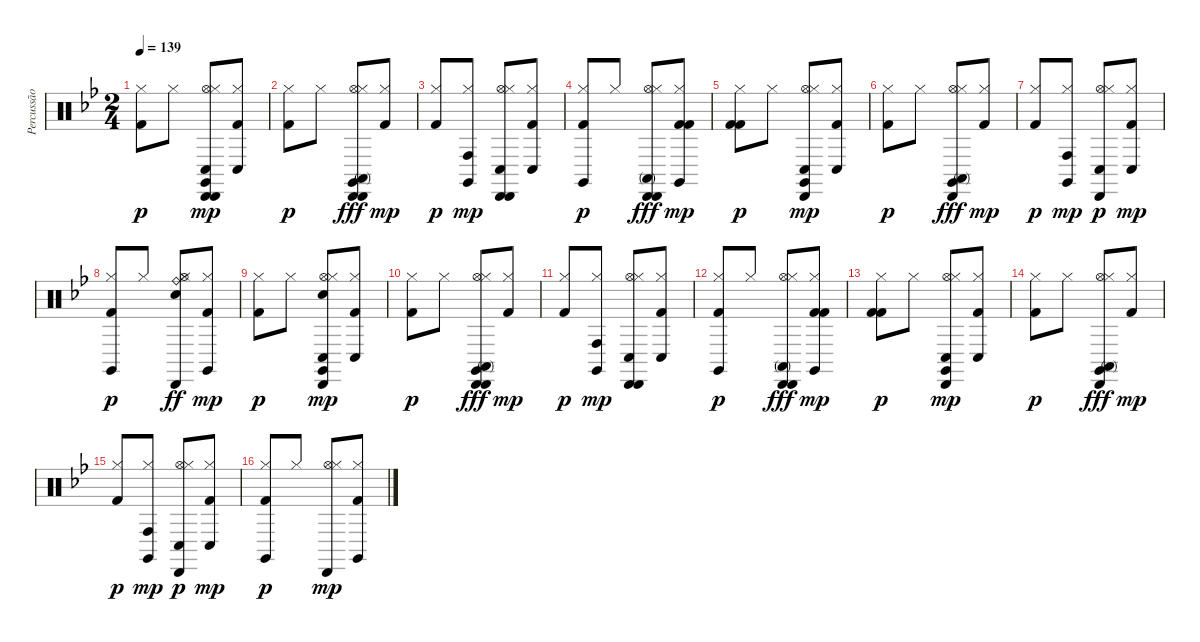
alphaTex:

\track ("Percussão" "Percussão") {instrument percussion}
\staff {score}
\articulation defaults
\ts (2 4)
\tempo 139
\clef neutral
\ks bb
("Kick (hit) 2" "Hi-Hat (closed)").8{dy p} "Hi-Hat (closed)".8 ("Hi-Hat (open)" "Hi-Hat (closed)" "Claves (hit)" "Conga low (hit)" "Cabasa (hit)" "Cabasa (hit)").8{dy mp} ("Hi-Hat (closed)" "Conga low (hit)" "Kick (hit) 2").8 |
("Kick (hit) 2" "Hi-Hat (closed)").8{dy p} "Hi-Hat (closed)".8 ("Hi-Hat (open)" "Hi-Hat (closed)" "Claves (hit)" "Cabasa (hit)" "Cabasa (hit)" "Conga high (mute)").8{dy fff} ("Hi-Hat (closed)" "Kick (hit) 2").8{dy mp} |
("Kick (hit) 2" "Hi-Hat (closed)").8{dy p} ("Hi-Hat (closed)" "Claves (hit)" "Conga high (hit)").8{dy mp} ("Hi-Hat (open)" "Hi-Hat (closed)" "Conga low (hit)" "Cabasa (hit)" "Cabasa (hit)").8 ("Hi-Hat (closed)" "Conga low (hit)" "Kick (hit) 2").8 |
("Kick (hit) 2" "Claves (hit)" "Hi-Hat (closed)").8{dy p} "Hi-Hat (closed)".8 ("Hi-Hat (open)" "Hi-Hat (closed)" "Cabasa (hit)" "Cabasa (hit)" "Conga high (mute)").8{dy fff} ("Hi-Hat (closed)" "Claves (hit)" "Kick (hit) 2" "Kick (hit) 2").8{dy mp} |
("Kick (hit) 2" "Kick (hit) 2" "Hi-Hat (closed)").8{dy p} "Hi-Hat (closed)".8 ("Hi-Hat (open)" "Hi-Hat (closed)" "Claves (hit)" "Conga low (hit)" "Cabasa (hit)").8{dy mp} ("Hi-Hat (closed)" "Conga low (hit)" "Kick (hit) 2").8 |
("Kick (hit) 2" "Hi-Hat (closed)").8{dy p} "Hi-Hat (closed)".8 ("Hi-Hat (open)" "Hi-Hat (closed)" "Claves (hit)" "Cabasa (hit)" "Conga high (mute)").8{dy fff} ("Hi-Hat (closed)" "Kick (hit) 2").8{dy mp} |
("Kick (hit) 2" "Hi-Hat (closed)").8{dy p} ("Hi-Hat (closed)" "Claves (hit)" "Conga high (hit)").8{dy mp} ("Hi-Hat (open)" "Hi-Hat (closed)" "Conga low (hit)" "Cabasa (hit)").8{dy p} ("Hi-Hat (closed)" "Conga low (hit)" "Kick (hit) 2").8{dy mp} |
("Kick (hit) 2" "Claves (hit)" "Hi-Hat (closed)").8{dy p} "Hi-Hat (closed)".8 ("Hi-Hat (open)" "Hi-Hat (closed)" "Electric Snare (hit)" "Cabasa (hit)" "Ride (bell)").8{dy ff} ("Hi-Hat (closed)" "Claves (hit)" "Kick (hit) 2").8{dy mp} |
("Kick (hit) 2" "Hi-Hat (closed)").8{dy p} "Hi-Hat (closed)".8 ("Hi-Hat (open)" "Hi-Hat (closed)" "Claves (hit)" "Conga low (hit)" "Electric Snare (hit)" "Cabasa (hit)").8{dy mp} ("Hi-Hat (closed)" "Conga low (hit)" "Kick (hit) 2").8 |
("Kick (hit) 2" "Hi-Hat (closed)").8{dy p} "Hi-Hat (closed)".8 ("Hi-Hat (open)" "Hi-Hat (closed)" "Claves (hit)" "Cabasa (hit)" "Cabasa (hit)" "Conga high (mute)").8{dy fff} ("Hi-Hat (closed)" "Kick (hit) 2").8{dy mp} |
("Kick (hit) 2" "Hi-Hat (closed)").8{dy p} ("Hi-Hat (closed)" "Claves (hit)" "Conga high (hit)").8{dy mp} ("Hi-Hat (open)" "Hi-Hat (closed)" "Conga low (hit)" "Cabasa (hit)" "Cabasa (hit)").8 ("Hi-Hat (closed)" "Conga low (hit)" "Kick (hit) 2").8 |
("Kick (hit) 2" "Claves (hit)" "Hi-Hat (closed)").8{dy p} "Hi-Hat (closed)".8 ("Hi-Hat (open)" "Hi-Hat (closed)" "Cabasa (hit)" "Cabasa (hit)" "Conga high (mute)").8{dy fff} ("Hi-Hat (closed)" "Claves (hit)" "Kick (hit) 2" "Kick (hit) 2").8{dy mp} |
("Kick (hit) 2" "Kick (hit) 2" "Hi-Hat (closed)").8{dy p} "Hi-Hat (closed)".8 ("Hi-Hat (open)" "Hi-Hat (closed)" "Claves (hit)" "Conga low (hit)" "Cabasa (hit)").8{dy mp} ("Hi-Hat (closed)" "Conga low (hit)" "Kick (hit) 2").8 |
("Kick (hit) 2" "Hi-Hat (closed)").8{dy p} "Hi-Hat (closed)".8 ("Hi-Hat (open)" "Hi-Hat (closed)" "Claves (hit)" "Cabasa (hit)" "Conga high (mute)").8{dy fff} ("Hi-Hat (closed)" "Kick (hit) 2").8{dy mp} |
("Kick (hit) 2" "Hi-Hat (closed)").8{dy p} ("Hi-Hat (closed)" "Claves (hit)" "Conga high (hit)").8{dy mp} ("Hi-Hat (open)" "Hi-Hat (closed)" "Conga low (hit)" "Cabasa (hit)").8{dy p} ("Hi-Hat (closed)" "Conga low (hit)" "Kick (hit) 2").8{dy mp} |
("Kick (hit) 2" "Claves (hit)" "Hi-Hat (closed)").8{dy p} "Hi-Hat (closed)".8 ("Hi-Hat (open)" "Hi-Hat (closed)" "Cabasa (hit)").8{dy mp} ("Hi-Hat (closed)" "Claves (hit)" "Kick (hit) 2").8
